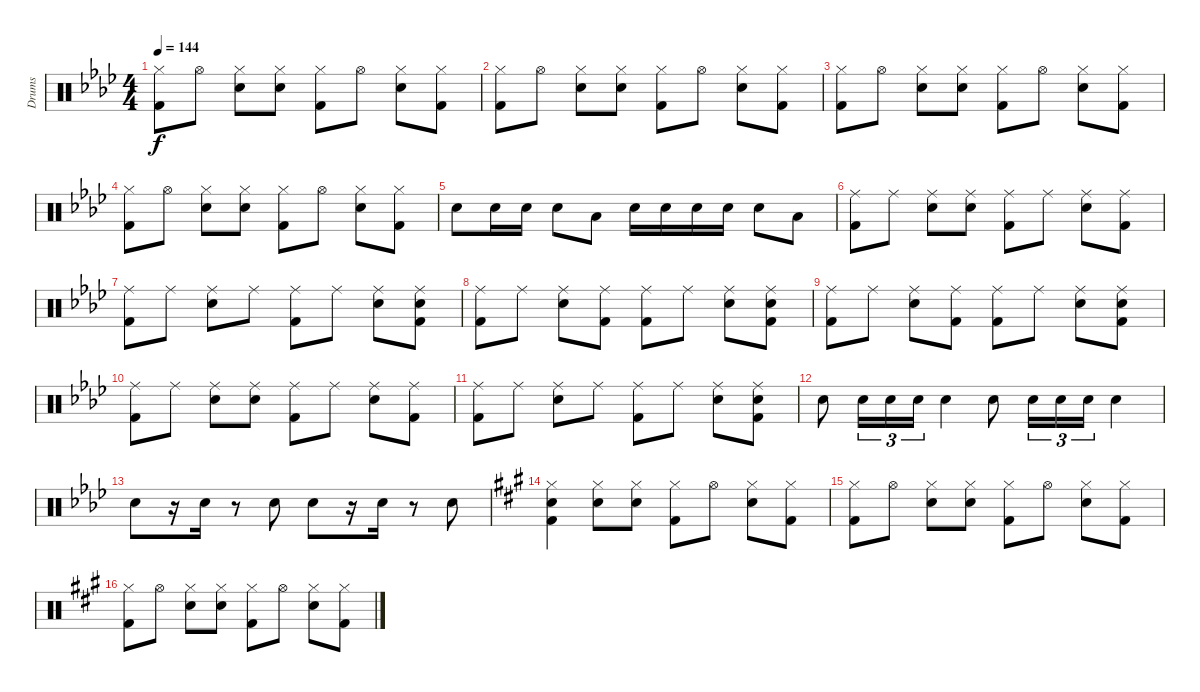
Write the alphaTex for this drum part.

\track ("Drums" "Drums") {instrument percussion}
\staff {score}
\articulation defaults
\ts (4 4)
\tempo 144
\clef neutral
\ks ab
("Hi-Hat (closed)" "Kick (hit) 2").8{dy f} "Hi-Hat (open)".8 ("Hi-Hat (closed)" "Snare (hit) 2").8 ("Hi-Hat (closed)" "Snare (hit) 2").8 ("Hi-Hat (closed)" "Kick (hit) 2").8 "Hi-Hat (open)".8 ("Hi-Hat (closed)" "Snare (hit) 2").8 ("Hi-Hat (closed)" "Kick (hit) 2").8 |
("Hi-Hat (closed)" "Kick (hit) 2").8 "Hi-Hat (open)".8 ("Hi-Hat (closed)" "Snare (hit) 2").8 ("Hi-Hat (closed)" "Snare (hit) 2").8 ("Hi-Hat (closed)" "Kick (hit) 2").8 "Hi-Hat (open)".8 ("Hi-Hat (closed)" "Snare (hit) 2").8 ("Hi-Hat (closed)" "Kick (hit) 2").8 |
("Hi-Hat (closed)" "Kick (hit) 2").8 "Hi-Hat (open)".8 ("Hi-Hat (closed)" "Snare (hit) 2").8 ("Hi-Hat (closed)" "Snare (hit) 2").8 ("Hi-Hat (closed)" "Kick (hit) 2").8 "Hi-Hat (open)".8 ("Hi-Hat (closed)" "Snare (hit) 2").8 ("Hi-Hat (closed)" "Kick (hit) 2").8 |
("Hi-Hat (closed)" "Kick (hit) 2").8 "Hi-Hat (open)".8 ("Hi-Hat (closed)" "Snare (hit) 2").8 ("Hi-Hat (closed)" "Snare (hit) 2").8 ("Hi-Hat (closed)" "Kick (hit) 2").8 "Hi-Hat (open)".8 ("Hi-Hat (closed)" "Snare (hit) 2").8 ("Hi-Hat (closed)" "Kick (hit) 2").8 |
"Snare (hit) 2".8 "Snare (hit) 2".16 "Snare (hit) 2".16 "Snare (hit) 2".8 "Low Tom (hit)".8 "Snare (hit) 2".16 "Snare (hit) 2".16 "Snare (hit) 2".16 "Snare (hit) 2".16 "Snare (hit) 2".8 "Low Tom (hit)".8 |
("Ride (middle)" "Kick (hit) 2").8 "Ride (middle)".8 ("Ride (middle)" "Snare (hit) 2").8 ("Ride (middle)" "Snare (hit) 2").8 ("Ride (middle)" "Kick (hit) 2").8 "Ride (middle)".8 ("Ride (middle)" "Snare (hit) 2").8 ("Ride (middle)" "Kick (hit) 2").8 |
("Ride (middle)" "Kick (hit) 2").8 "Ride (middle)".8 ("Ride (middle)" "Snare (hit) 2").8 "Ride (middle)".8 ("Ride (middle)" "Kick (hit) 2").8 "Ride (middle)".8 ("Ride (middle)" "Snare (hit) 2").8 ("Ride (middle)" "Snare (hit) 2" "Kick (hit) 2").8 |
("Ride (middle)" "Kick (hit) 2").8 "Ride (middle)".8 ("Ride (middle)" "Snare (hit) 2").8 ("Ride (middle)" "Kick (hit) 2").8 ("Ride (middle)" "Kick (hit) 2").8 "Ride (middle)".8 ("Ride (middle)" "Snare (hit) 2").8 ("Ride (middle)" "Snare (hit) 2" "Kick (hit) 2").8 |
("Ride (middle)" "Kick (hit) 2").8 "Ride (middle)".8 ("Ride (middle)" "Snare (hit) 2").8 ("Ride (middle)" "Kick (hit) 2").8 ("Ride (middle)" "Kick (hit) 2").8 "Ride (middle)".8 ("Ride (middle)" "Snare (hit) 2").8 ("Ride (middle)" "Snare (hit) 2" "Kick (hit) 2").8 |
("Ride (middle)" "Kick (hit) 2").8 "Ride (middle)".8 ("Ride (middle)" "Snare (hit) 2").8 ("Ride (middle)" "Snare (hit) 2").8 ("Ride (middle)" "Kick (hit) 2").8 "Ride (middle)".8 ("Ride (middle)" "Snare (hit) 2").8 ("Ride (middle)" "Kick (hit) 2").8 |
("Ride (middle)" "Kick (hit) 2").8 "Ride (middle)".8 ("Ride (middle)" "Snare (hit) 2").8 "Ride (middle)".8 ("Ride (middle)" "Kick (hit) 2").8 "Ride (middle)".8 ("Ride (middle)" "Snare (hit) 2").8 ("Ride (middle)" "Snare (hit) 2" "Kick (hit) 2").8 |
"Snare (hit) 2".8 "Snare (hit) 2".16{tu (3 2)} "Snare (hit) 2".16{tu (3 2)} "Snare (hit) 2".16{tu (3 2)} "Snare (hit) 2".4 "Snare (hit) 2".8 "Snare (hit) 2".16{tu (3 2)} "Snare (hit) 2".16{tu (3 2)} "Snare (hit) 2".16{tu (3 2)} "Snare (hit) 2".4 |
"Snare (hit) 2".8 r.16 "Snare (hit) 2".16 r.8 "Snare (hit) 2".8 "Snare (hit) 2".8 r.16 "Snare (hit) 2".16 r.8 "Snare (hit) 2".8 |
\ks a
("Hi-Hat (closed)" "Snare (hit) 2" "Kick (hit) 2").4 ("Hi-Hat (closed)" "Snare (hit) 2").8 ("Hi-Hat (closed)" "Snare (hit) 2").8 ("Hi-Hat (closed)" "Kick (hit) 2").8 "Hi-Hat (open)".8 ("Hi-Hat (closed)" "Snare (hit) 2").8 ("Hi-Hat (closed)" "Kick (hit) 2").8 |
("Hi-Hat (closed)" "Kick (hit) 2").8 "Hi-Hat (open)".8 ("Hi-Hat (closed)" "Snare (hit) 2").8 ("Hi-Hat (closed)" "Snare (hit) 2").8 ("Hi-Hat (closed)" "Kick (hit) 2").8 "Hi-Hat (open)".8 ("Hi-Hat (closed)" "Snare (hit) 2").8 ("Hi-Hat (closed)" "Kick (hit) 2").8 |
("Hi-Hat (closed)" "Kick (hit) 2").8 "Hi-Hat (open)".8 ("Hi-Hat (closed)" "Snare (hit) 2").8 ("Hi-Hat (closed)" "Snare (hit) 2").8 ("Hi-Hat (closed)" "Kick (hit) 2").8 "Hi-Hat (open)".8 ("Hi-Hat (closed)" "Snare (hit) 2").8 ("Hi-Hat (closed)" "Kick (hit) 2").8
